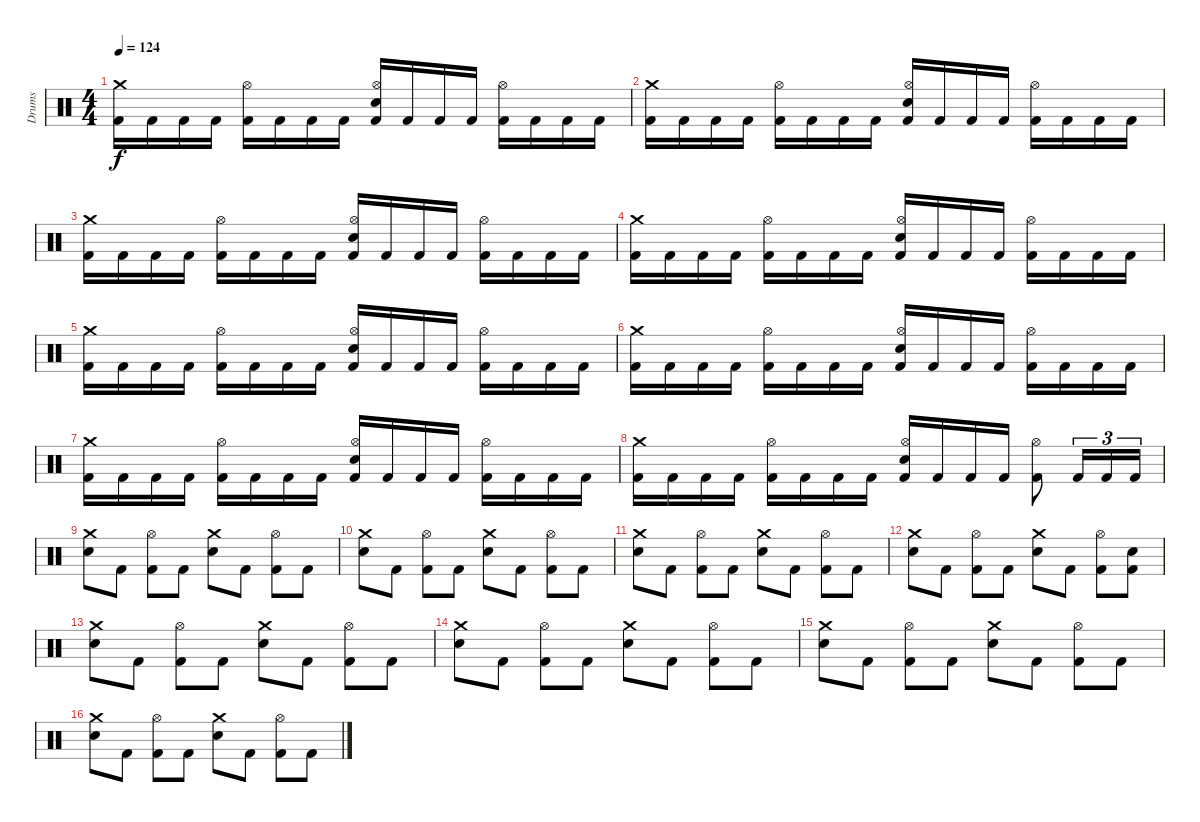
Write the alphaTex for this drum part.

\track ("Drums" "Drums") {instrument percussion}
\staff {score}
\articulation defaults
\ts (4 4)
\tempo 124
\clef neutral
\ks c
("Crash medium (hit)" "Kick (hit) 2").16{dy f} "Kick (hit) 2".16 "Kick (hit) 2".16 "Kick (hit) 2".16 ("Hi-Hat (open)" "Kick (hit) 2").16 "Kick (hit) 2".16 "Kick (hit) 2".16 "Kick (hit) 2".16 ("Hi-Hat (open)" "Electric Snare (hit)" "Kick (hit) 2").16 "Kick (hit) 2".16 "Kick (hit) 2".16 "Kick (hit) 2".16 ("Hi-Hat (open)" "Kick (hit) 2").16 "Kick (hit) 2".16 "Kick (hit) 2".16 "Kick (hit) 2".16 |
("Crash medium (hit)" "Kick (hit) 2").16 "Kick (hit) 2".16 "Kick (hit) 2".16 "Kick (hit) 2".16 ("Hi-Hat (open)" "Kick (hit) 2").16 "Kick (hit) 2".16 "Kick (hit) 2".16 "Kick (hit) 2".16 ("Hi-Hat (open)" "Electric Snare (hit)" "Kick (hit) 2").16 "Kick (hit) 2".16 "Kick (hit) 2".16 "Kick (hit) 2".16 ("Hi-Hat (open)" "Kick (hit) 2").16 "Kick (hit) 2".16 "Kick (hit) 2".16 "Kick (hit) 2".16 |
("Crash medium (hit)" "Kick (hit) 2").16 "Kick (hit) 2".16 "Kick (hit) 2".16 "Kick (hit) 2".16 ("Hi-Hat (open)" "Kick (hit) 2").16 "Kick (hit) 2".16 "Kick (hit) 2".16 "Kick (hit) 2".16 ("Hi-Hat (open)" "Electric Snare (hit)" "Kick (hit) 2").16 "Kick (hit) 2".16 "Kick (hit) 2".16 "Kick (hit) 2".16 ("Hi-Hat (open)" "Kick (hit) 2").16 "Kick (hit) 2".16 "Kick (hit) 2".16 "Kick (hit) 2".16 |
("Crash medium (hit)" "Kick (hit) 2").16 "Kick (hit) 2".16 "Kick (hit) 2".16 "Kick (hit) 2".16 ("Hi-Hat (open)" "Kick (hit) 2").16 "Kick (hit) 2".16 "Kick (hit) 2".16 "Kick (hit) 2".16 ("Hi-Hat (open)" "Electric Snare (hit)" "Kick (hit) 2").16 "Kick (hit) 2".16 "Kick (hit) 2".16 "Kick (hit) 2".16 ("Hi-Hat (open)" "Kick (hit) 2").16 "Kick (hit) 2".16 "Kick (hit) 2".16 "Kick (hit) 2".16 |
("Crash medium (hit)" "Kick (hit) 2").16 "Kick (hit) 2".16 "Kick (hit) 2".16 "Kick (hit) 2".16 ("Hi-Hat (open)" "Kick (hit) 2").16 "Kick (hit) 2".16 "Kick (hit) 2".16 "Kick (hit) 2".16 ("Hi-Hat (open)" "Electric Snare (hit)" "Kick (hit) 2").16 "Kick (hit) 2".16 "Kick (hit) 2".16 "Kick (hit) 2".16 ("Hi-Hat (open)" "Kick (hit) 2").16 "Kick (hit) 2".16 "Kick (hit) 2".16 "Kick (hit) 2".16 |
("Crash medium (hit)" "Kick (hit) 2").16 "Kick (hit) 2".16 "Kick (hit) 2".16 "Kick (hit) 2".16 ("Hi-Hat (open)" "Kick (hit) 2").16 "Kick (hit) 2".16 "Kick (hit) 2".16 "Kick (hit) 2".16 ("Hi-Hat (open)" "Electric Snare (hit)" "Kick (hit) 2").16 "Kick (hit) 2".16 "Kick (hit) 2".16 "Kick (hit) 2".16 ("Hi-Hat (open)" "Kick (hit) 2").16 "Kick (hit) 2".16 "Kick (hit) 2".16 "Kick (hit) 2".16 |
("Crash medium (hit)" "Kick (hit) 2").16 "Kick (hit) 2".16 "Kick (hit) 2".16 "Kick (hit) 2".16 ("Hi-Hat (open)" "Kick (hit) 2").16 "Kick (hit) 2".16 "Kick (hit) 2".16 "Kick (hit) 2".16 ("Hi-Hat (open)" "Electric Snare (hit)" "Kick (hit) 2").16 "Kick (hit) 2".16 "Kick (hit) 2".16 "Kick (hit) 2".16 ("Hi-Hat (open)" "Kick (hit) 2").16 "Kick (hit) 2".16 "Kick (hit) 2".16 "Kick (hit) 2".16 |
("Crash medium (hit)" "Kick (hit) 2").16 "Kick (hit) 2".16 "Kick (hit) 2".16 "Kick (hit) 2".16 ("Hi-Hat (open)" "Kick (hit) 2").16 "Kick (hit) 2".16 "Kick (hit) 2".16 "Kick (hit) 2".16 ("Hi-Hat (open)" "Electric Snare (hit)" "Kick (hit) 2").16 "Kick (hit) 2".16 "Kick (hit) 2".16 "Kick (hit) 2".16 ("Hi-Hat (open)" "Kick (hit) 2").8 "Kick (hit) 2".16{tu (3 2)} "Kick (hit) 2".16{tu (3 2)} "Kick (hit) 2".16{tu (3 2)} |
("Crash medium (hit)" "Electric Snare (hit)").8 "Kick (hit) 2".8 ("Hi-Hat (open)" "Kick (hit) 2").8 "Kick (hit) 2".8 ("Crash medium (hit)" "Electric Snare (hit)").8 "Kick (hit) 2".8 ("Hi-Hat (open)" "Kick (hit) 2").8 "Kick (hit) 2".8 |
("Crash medium (hit)" "Electric Snare (hit)").8 "Kick (hit) 2".8 ("Hi-Hat (open)" "Kick (hit) 2").8 "Kick (hit) 2".8 ("Crash medium (hit)" "Electric Snare (hit)").8 "Kick (hit) 2".8 ("Hi-Hat (open)" "Kick (hit) 2").8 "Kick (hit) 2".8 |
("Crash medium (hit)" "Electric Snare (hit)").8 "Kick (hit) 2".8 ("Hi-Hat (open)" "Kick (hit) 2").8 "Kick (hit) 2".8 ("Crash medium (hit)" "Electric Snare (hit)").8 "Kick (hit) 2".8 ("Hi-Hat (open)" "Kick (hit) 2").8 "Kick (hit) 2".8 |
("Crash medium (hit)" "Electric Snare (hit)").8 "Kick (hit) 2".8 ("Hi-Hat (open)" "Kick (hit) 2").8 "Kick (hit) 2".8 ("Crash medium (hit)" "Electric Snare (hit)").8 "Kick (hit) 2".8 ("Hi-Hat (open)" "Kick (hit) 2").8 ("Electric Snare (hit)" "Kick (hit) 2").8 |
("Crash medium (hit)" "Electric Snare (hit)").8 "Kick (hit) 2".8 ("Hi-Hat (open)" "Kick (hit) 2").8 "Kick (hit) 2".8 ("Crash medium (hit)" "Electric Snare (hit)").8 "Kick (hit) 2".8 ("Hi-Hat (open)" "Kick (hit) 2").8 "Kick (hit) 2".8 |
("Crash medium (hit)" "Electric Snare (hit)").8 "Kick (hit) 2".8 ("Hi-Hat (open)" "Kick (hit) 2").8 "Kick (hit) 2".8 ("Crash medium (hit)" "Electric Snare (hit)").8 "Kick (hit) 2".8 ("Hi-Hat (open)" "Kick (hit) 2").8 "Kick (hit) 2".8 |
("Crash medium (hit)" "Electric Snare (hit)").8 "Kick (hit) 2".8 ("Hi-Hat (open)" "Kick (hit) 2").8 "Kick (hit) 2".8 ("Crash medium (hit)" "Electric Snare (hit)").8 "Kick (hit) 2".8 ("Hi-Hat (open)" "Kick (hit) 2").8 "Kick (hit) 2".8 |
("Crash medium (hit)" "Electric Snare (hit)").8 "Kick (hit) 2".8 ("Hi-Hat (open)" "Kick (hit) 2").8 "Kick (hit) 2".8 ("Crash medium (hit)" "Electric Snare (hit)").8 "Kick (hit) 2".8 ("Hi-Hat (open)" "Kick (hit) 2").8 "Kick (hit) 2".8
